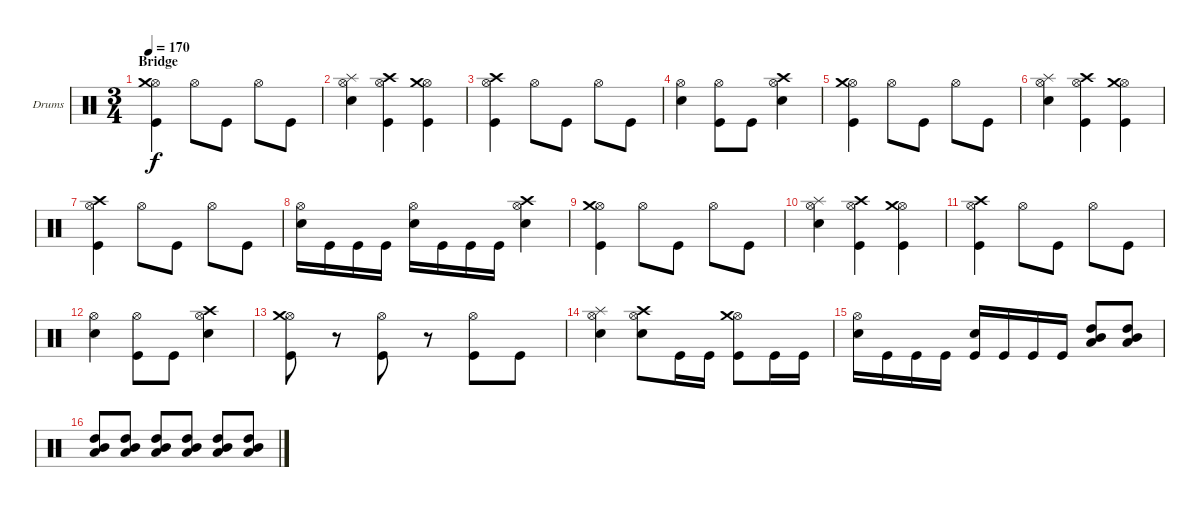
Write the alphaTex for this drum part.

\defaultSystemsLayout 4
\bracketExtendMode groupsimilarinstruments
\firstSystemTrackNameOrientation horizontal
\otherSystemsTrackNameOrientation horizontal
\track ("Drums" "Drums") {instrument percussion}
\staff {score}
\articulation defaults
\ts (3 4)
\section ("" "Bridge")
\tempo 170
\clef neutral
\ks c
("Hi-Hat (open)" "Kick (hit)" "Crash medium (hit)").4{dy f} "Hi-Hat (open)".8 "Kick (hit)".8 "Hi-Hat (open)".8 "Kick (hit)".8 |
("Hi-Hat (open)" "Snare (hit) 2" "Splash (hit)").4 ("Hi-Hat (open)" "Kick (hit)" "Crash high (hit)").4 ("Hi-Hat (open)" "Kick (hit)" "Crash medium (hit)").4 |
("Hi-Hat (open)" "Kick (hit)" "Crash high (hit)").4 "Hi-Hat (open)".8 "Kick (hit)".8 "Hi-Hat (open)".8 "Kick (hit)".8 |
("Hi-Hat (open)" "Snare (hit) 2").4 ("Hi-Hat (open)" "Kick (hit)").8 "Kick (hit)".8 ("Hi-Hat (open)" "Snare (hit) 2" "Crash high (hit)").4 |
("Hi-Hat (open)" "Kick (hit)" "Crash medium (hit)").4 "Hi-Hat (open)".8 "Kick (hit)".8 "Hi-Hat (open)".8 "Kick (hit)".8 |
("Hi-Hat (open)" "Snare (hit) 2" "Splash (hit)").4 ("Hi-Hat (open)" "Kick (hit)" "Crash high (hit)").4 ("Hi-Hat (open)" "Kick (hit)" "Crash medium (hit)").4 |
("Hi-Hat (open)" "Kick (hit)" "Crash high (hit)").4 "Hi-Hat (open)".8 "Kick (hit)".8 "Hi-Hat (open)".8 "Kick (hit)".8 |
("Hi-Hat (open)" "Snare (hit) 2").16 "Kick (hit)".16 "Kick (hit)".16 "Kick (hit)".16 ("Hi-Hat (open)" "Snare (hit) 2").16 "Kick (hit)".16 "Kick (hit)".16 "Kick (hit)".16 ("Hi-Hat (open)" "Snare (hit) 2" "Crash high (hit)").4 |
("Hi-Hat (open)" "Kick (hit)" "Crash medium (hit)").4 "Hi-Hat (open)".8 "Kick (hit)".8 "Hi-Hat (open)".8 "Kick (hit)".8 |
("Hi-Hat (open)" "Snare (hit) 2" "Splash (hit)").4 ("Hi-Hat (open)" "Kick (hit)" "Crash high (hit)").4 ("Hi-Hat (open)" "Kick (hit)" "Crash medium (hit)").4 |
("Hi-Hat (open)" "Kick (hit)" "Crash high (hit)").4 "Hi-Hat (open)".8 "Kick (hit)".8 "Hi-Hat (open)".8 "Kick (hit)".8 |
("Hi-Hat (open)" "Snare (hit) 2").4 ("Hi-Hat (open)" "Kick (hit)").8 "Kick (hit)".8 ("Hi-Hat (open)" "Snare (hit) 2" "Crash high (hit)").4 |
("Hi-Hat (open)" "Kick (hit)" "Crash medium (hit)").8 r.8 ("Hi-Hat (open)" "Kick (hit)").8 r.8 ("Hi-Hat (open)" "Kick (hit)").8 "Kick (hit)".8 |
("Hi-Hat (open)" "Snare (hit) 2" "Splash (hit)").4 ("Hi-Hat (open)" "Snare (hit) 2" "Crash high (hit)").8 "Kick (hit)".16 "Kick (hit)".16 ("Hi-Hat (open)" "Kick (hit)" "Crash medium (hit)").8 "Kick (hit)".16 "Kick (hit)".16 |
("Hi-Hat (open)" "Snare (hit) 2").16 "Kick (hit)".16 "Kick (hit)".16 "Kick (hit)".16 ("Snare (hit) 2" "Kick (hit)").16 "Kick (hit)".16 "Kick (hit)".16 "Kick (hit)".16 ("Mid Tom (hit)" "High Tom (hit)" "Low Tom (hit)").8 ("Mid Tom (hit)" "High Tom (hit)" "Low Tom (hit)").8 |
("Mid Tom (hit)" "High Tom (hit)" "Low Tom (hit)").8 ("Mid Tom (hit)" "High Tom (hit)" "Low Tom (hit)").8 ("Mid Tom (hit)" "High Tom (hit)" "Low Tom (hit)").8 ("Mid Tom (hit)" "High Tom (hit)" "Low Tom (hit)").8 ("Mid Tom (hit)" "High Tom (hit)" "Low Tom (hit)").8 ("Mid Tom (hit)" "High Tom (hit)" "Low Tom (hit)").8
